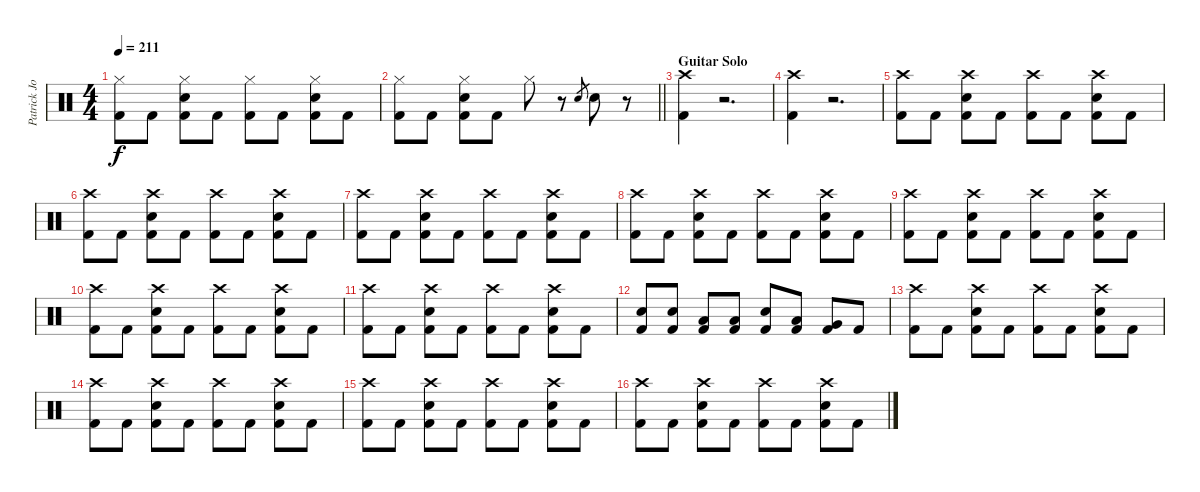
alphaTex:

\track ("Patrick Johansson" "Patrick Jo") {instrument percussion}
\staff {score}
\articulation defaults
\ts (4 4)
\tempo 211
\clef neutral
\ks c
("Hi-Hat (closed)" "Kick (hit) 2").8{dy f} "Kick (hit) 2".8 ("Electric Snare (hit)" "Hi-Hat (closed)" "Kick (hit) 2").8 "Kick (hit) 2".8 ("Hi-Hat (closed)" "Kick (hit) 2").8 "Kick (hit) 2".8 ("Electric Snare (hit)" "Hi-Hat (closed)" "Kick (hit) 2").8 "Kick (hit) 2".8 |
\barLineRight lightlight
("Hi-Hat (closed)" "Kick (hit) 2").8 "Kick (hit) 2".8 ("Electric Snare (hit)" "Hi-Hat (closed)" "Kick (hit) 2").8 "Kick (hit) 2".8 "Hi-Hat (closed)".8 r.8 "Electric Snare (hit)".8{gr} "Electric Snare (hit)".8 r.8 |
\section ("" "Guitar Solo")
("Crash high (hit)" "Kick (hit) 2").4 r.2{d} |
("Crash high (hit)" "Kick (hit) 2").4 r.2{d} |
("Crash high (hit)" "Kick (hit) 2").8 "Kick (hit) 2".8 ("Crash high (hit)" "Electric Snare (hit)" "Kick (hit) 2").8 "Kick (hit) 2".8 ("Crash high (hit)" "Kick (hit) 2").8 "Kick (hit) 2".8 ("Crash high (hit)" "Electric Snare (hit)" "Kick (hit) 2").8 "Kick (hit) 2".8 |
("Crash high (hit)" "Kick (hit) 2").8 "Kick (hit) 2".8 ("Crash high (hit)" "Electric Snare (hit)" "Kick (hit) 2").8 "Kick (hit) 2".8 ("Crash high (hit)" "Kick (hit) 2").8 "Kick (hit) 2".8 ("Crash high (hit)" "Electric Snare (hit)" "Kick (hit) 2").8 "Kick (hit) 2".8 |
("Crash high (hit)" "Kick (hit) 2").8 "Kick (hit) 2".8 ("Crash high (hit)" "Electric Snare (hit)" "Kick (hit) 2").8 "Kick (hit) 2".8 ("Crash high (hit)" "Kick (hit) 2").8 "Kick (hit) 2".8 ("Crash high (hit)" "Electric Snare (hit)" "Kick (hit) 2").8 "Kick (hit) 2".8 |
("Crash high (hit)" "Kick (hit) 2").8 "Kick (hit) 2".8 ("Crash high (hit)" "Electric Snare (hit)" "Kick (hit) 2").8 "Kick (hit) 2".8 ("Crash high (hit)" "Kick (hit) 2").8 "Kick (hit) 2".8 ("Crash high (hit)" "Electric Snare (hit)" "Kick (hit) 2").8 "Kick (hit) 2".8 |
("Crash high (hit)" "Kick (hit) 2").8 "Kick (hit) 2".8 ("Crash high (hit)" "Electric Snare (hit)" "Kick (hit) 2").8 "Kick (hit) 2".8 ("Crash high (hit)" "Kick (hit) 2").8 "Kick (hit) 2".8 ("Crash high (hit)" "Electric Snare (hit)" "Kick (hit) 2").8 "Kick (hit) 2".8 |
("Crash high (hit)" "Kick (hit) 2").8 "Kick (hit) 2".8 ("Crash high (hit)" "Electric Snare (hit)" "Kick (hit) 2").8 "Kick (hit) 2".8 ("Crash high (hit)" "Kick (hit) 2").8 "Kick (hit) 2".8 ("Crash high (hit)" "Electric Snare (hit)" "Kick (hit) 2").8 "Kick (hit) 2".8 |
("Crash high (hit)" "Kick (hit) 2").8 "Kick (hit) 2".8 ("Crash high (hit)" "Electric Snare (hit)" "Kick (hit) 2").8 "Kick (hit) 2".8 ("Crash high (hit)" "Kick (hit) 2").8 "Kick (hit) 2".8 ("Crash high (hit)" "Electric Snare (hit)" "Kick (hit) 2").8 "Kick (hit) 2".8 |
("Electric Snare (hit)" "Kick (hit) 2").8 ("Electric Snare (hit)" "Kick (hit) 2").8 ("Low Tom (hit)" "Kick (hit) 2").8 ("Low Tom (hit)" "Kick (hit) 2").8 ("Electric Snare (hit)" "Kick (hit) 2").8 ("Low Tom (hit)" "Kick (hit) 2").8 ("Very Low Tom (hit)" "Kick (hit) 2").8 "Kick (hit) 2".8 |
("Crash high (hit)" "Kick (hit) 2").8 "Kick (hit) 2".8 ("Crash high (hit)" "Electric Snare (hit)" "Kick (hit) 2").8 "Kick (hit) 2".8 ("Crash high (hit)" "Kick (hit) 2").8 "Kick (hit) 2".8 ("Crash high (hit)" "Electric Snare (hit)" "Kick (hit) 2").8 "Kick (hit) 2".8 |
("Crash high (hit)" "Kick (hit) 2").8 "Kick (hit) 2".8 ("Crash high (hit)" "Electric Snare (hit)" "Kick (hit) 2").8 "Kick (hit) 2".8 ("Crash high (hit)" "Kick (hit) 2").8 "Kick (hit) 2".8 ("Crash high (hit)" "Electric Snare (hit)" "Kick (hit) 2").8 "Kick (hit) 2".8 |
("Crash high (hit)" "Kick (hit) 2").8 "Kick (hit) 2".8 ("Crash high (hit)" "Electric Snare (hit)" "Kick (hit) 2").8 "Kick (hit) 2".8 ("Crash high (hit)" "Kick (hit) 2").8 "Kick (hit) 2".8 ("Crash high (hit)" "Electric Snare (hit)" "Kick (hit) 2").8 "Kick (hit) 2".8 |
("Crash high (hit)" "Kick (hit) 2").8 "Kick (hit) 2".8 ("Crash high (hit)" "Electric Snare (hit)" "Kick (hit) 2").8 "Kick (hit) 2".8 ("Crash high (hit)" "Kick (hit) 2").8 "Kick (hit) 2".8 ("Crash high (hit)" "Electric Snare (hit)" "Kick (hit) 2").8 "Kick (hit) 2".8
